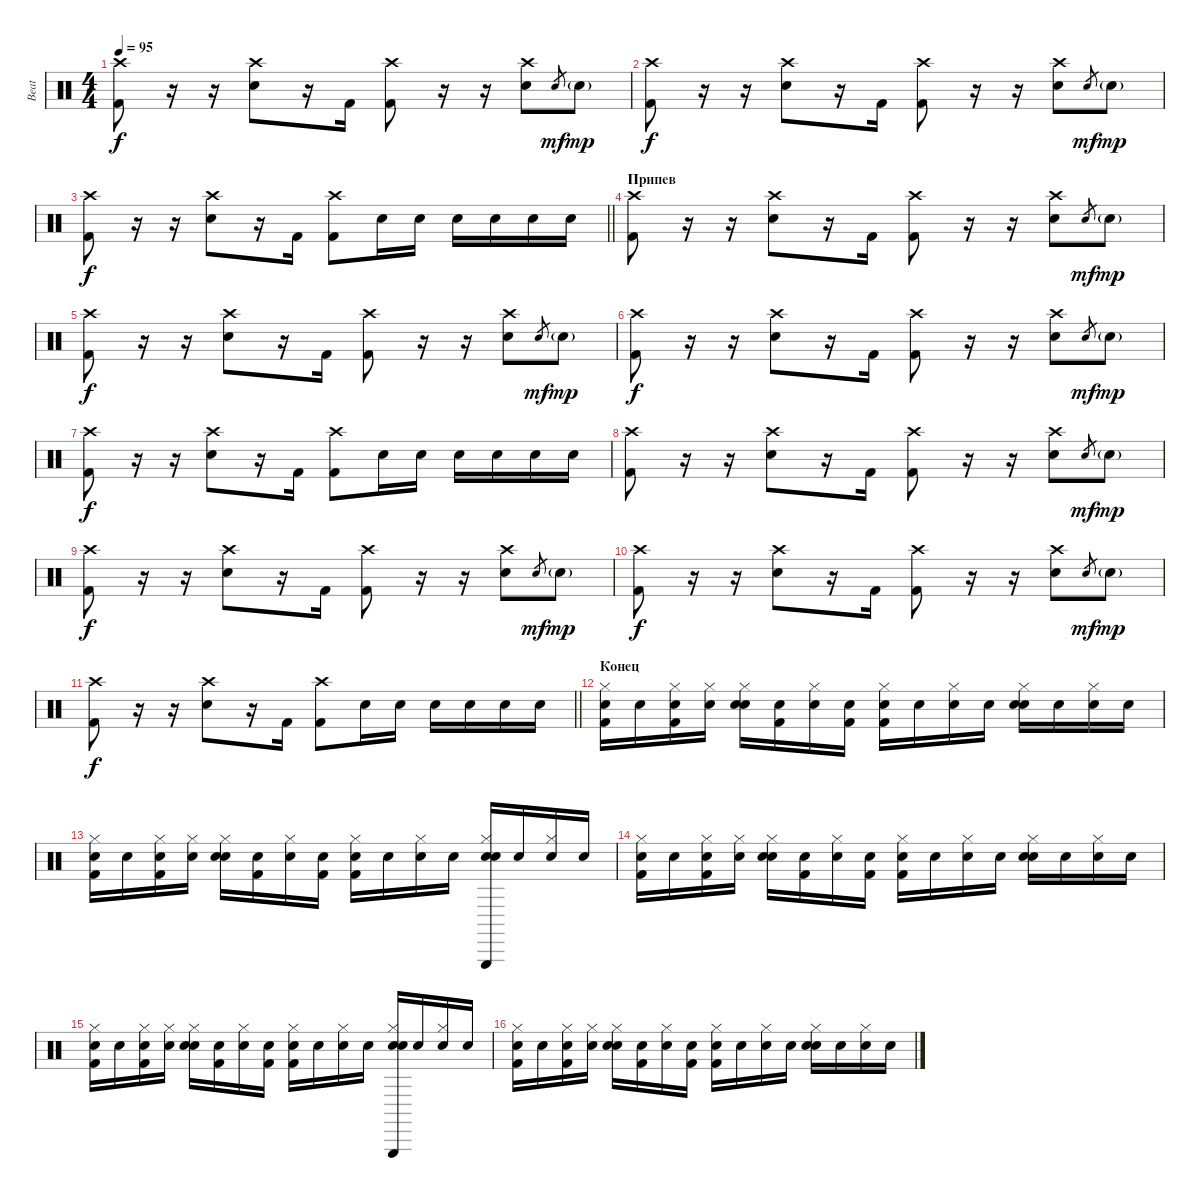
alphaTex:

\track ("Beat" "Beat") {instrument percussion}
\staff {score}
\articulation defaults
\ts (4 4)
\tempo 95
\clef neutral
\ks c
("Crash high (hit)" "Kick (hit) 2").8{dy f} r.16 r.16 ("Crash high (hit)" "Electric Snare (hit)").8 r.16 "Kick (hit) 2".16 ("Crash high (hit)" "Kick (hit) 2").8 r.16 r.16 ("Crash high (hit)" "Electric Snare (hit)").8 "Electric Snare (hit)".8{gr dy mf} "Electric Snare (hit)"{g}.8{dy mp} |
("Crash high (hit)" "Kick (hit) 2").8{dy f} r.16 r.16 ("Crash high (hit)" "Electric Snare (hit)").8 r.16 "Kick (hit) 2".16 ("Crash high (hit)" "Kick (hit) 2").8 r.16 r.16 ("Crash high (hit)" "Electric Snare (hit)").8 "Electric Snare (hit)".8{gr dy mf} "Electric Snare (hit)"{g}.8{dy mp} |
\barLineRight lightlight
("Crash high (hit)" "Kick (hit) 2").8{dy f} r.16 r.16 ("Crash high (hit)" "Electric Snare (hit)").8 r.16 "Kick (hit) 2".16 ("Crash high (hit)" "Kick (hit) 2").8 "Electric Snare (hit)".16 "Electric Snare (hit)".16 "Electric Snare (hit)".16 "Electric Snare (hit)".16 "Electric Snare (hit)".16 "Electric Snare (hit)".16 |
\section ("" "Припев")
("Crash high (hit)" "Kick (hit) 2").8{volume 16} r.16 r.16 ("Crash high (hit)" "Electric Snare (hit)").8 r.16 "Kick (hit) 2".16 ("Crash high (hit)" "Kick (hit) 2").8 r.16 r.16 ("Crash high (hit)" "Electric Snare (hit)").8 "Electric Snare (hit)".8{gr dy mf} "Electric Snare (hit)"{g}.8{dy mp} |
("Crash high (hit)" "Kick (hit) 2").8{dy f} r.16 r.16 ("Crash high (hit)" "Electric Snare (hit)").8 r.16 "Kick (hit) 2".16 ("Crash high (hit)" "Kick (hit) 2").8 r.16 r.16 ("Crash high (hit)" "Electric Snare (hit)").8 "Electric Snare (hit)".8{gr dy mf} "Electric Snare (hit)"{g}.8{dy mp} |
("Crash high (hit)" "Kick (hit) 2").8{dy f} r.16 r.16 ("Crash high (hit)" "Electric Snare (hit)").8 r.16 "Kick (hit) 2".16 ("Crash high (hit)" "Kick (hit) 2").8 r.16 r.16 ("Crash high (hit)" "Electric Snare (hit)").8 "Electric Snare (hit)".8{gr dy mf} "Electric Snare (hit)"{g}.8{dy mp} |
("Crash high (hit)" "Kick (hit) 2").8{dy f} r.16 r.16 ("Crash high (hit)" "Electric Snare (hit)").8 r.16 "Kick (hit) 2".16 ("Crash high (hit)" "Kick (hit) 2").8 "Electric Snare (hit)".16 "Electric Snare (hit)".16 "Electric Snare (hit)".16 "Electric Snare (hit)".16 "Electric Snare (hit)".16 "Electric Snare (hit)".16 |
("Crash high (hit)" "Kick (hit) 2").8 r.16 r.16 ("Crash high (hit)" "Electric Snare (hit)").8 r.16 "Kick (hit) 2".16 ("Crash high (hit)" "Kick (hit) 2").8 r.16 r.16 ("Crash high (hit)" "Electric Snare (hit)").8 "Electric Snare (hit)".8{gr dy mf} "Electric Snare (hit)"{g}.8{dy mp} |
("Crash high (hit)" "Kick (hit) 2").8{dy f} r.16 r.16 ("Crash high (hit)" "Electric Snare (hit)").8 r.16 "Kick (hit) 2".16 ("Crash high (hit)" "Kick (hit) 2").8 r.16 r.16 ("Crash high (hit)" "Electric Snare (hit)").8 "Electric Snare (hit)".8{gr dy mf} "Electric Snare (hit)"{g}.8{dy mp} |
("Crash high (hit)" "Kick (hit) 2").8{dy f} r.16 r.16 ("Crash high (hit)" "Electric Snare (hit)").8 r.16 "Kick (hit) 2".16 ("Crash high (hit)" "Kick (hit) 2").8 r.16 r.16 ("Crash high (hit)" "Electric Snare (hit)").8 "Electric Snare (hit)".8{gr dy mf} "Electric Snare (hit)"{g}.8{dy mp} |
\barLineRight lightlight
("Crash high (hit)" "Kick (hit) 2").8{dy f} r.16 r.16 ("Crash high (hit)" "Electric Snare (hit)").8 r.16 "Kick (hit) 2".16 ("Crash high (hit)" "Kick (hit) 2").8 "Electric Snare (hit)".16 "Electric Snare (hit)".16 "Electric Snare (hit)".16 "Electric Snare (hit)".16 "Electric Snare (hit)".16 "Electric Snare (hit)".16 |
\section ("" "Конец")
("Snare (hit)"{x} "Kick (hit) 2" "Hi-Hat (closed)").16 "Snare (hit)"{x}.16 ("Snare (hit)"{x} "Kick (hit) 2" "Hi-Hat (closed)").16 ("Snare (hit)"{x} "Hi-Hat (closed)").16 ("Snare (hit)"{x} "Electric Snare (hit)" "Hi-Hat (closed)").16 ("Snare (hit)"{x} "Kick (hit) 2").16 ("Snare (hit)"{x} "Hi-Hat (closed)").16 ("Snare (hit)"{x} "Kick (hit) 2").16 ("Snare (hit)"{x} "Kick (hit) 2" "Hi-Hat (closed)").16 "Snare (hit)"{x}.16 ("Snare (hit)"{x} "Hi-Hat (closed)").16 "Snare (hit)"{x}.16 ("Snare (hit)"{x} "Electric Snare (hit)" "Hi-Hat (closed)").16 "Snare (hit)"{x}.16 ("Snare (hit)"{x} "Hi-Hat (closed)").16 "Snare (hit)"{x}.16 |
("Snare (hit)"{x} "Kick (hit) 2" "Hi-Hat (closed)").16 "Snare (hit)"{x}.16 ("Snare (hit)"{x} "Kick (hit) 2" "Hi-Hat (closed)").16 ("Snare (hit)"{x} "Hi-Hat (closed)").16 ("Snare (hit)"{x} "Electric Snare (hit)" "Hi-Hat (closed)").16 ("Snare (hit)"{x} "Kick (hit) 2").16 ("Snare (hit)"{x} "Hi-Hat (closed)").16 ("Snare (hit)"{x} "Kick (hit) 2").16 ("Snare (hit)"{x} "Kick (hit) 2" "Hi-Hat (closed)").16 "Snare (hit)"{x}.16 ("Snare (hit)"{x} "Hi-Hat (closed)").16 "Snare (hit)"{x}.16 ("Snare (hit)"{x} "Triangle (hit)" "Electric Snare (hit)" "Hi-Hat (closed)").16 "Snare (hit)"{x}.16 ("Snare (hit)"{x} "Hi-Hat (closed)").16 "Snare (hit)"{x}.16 |
("Snare (hit)"{x} "Kick (hit) 2" "Hi-Hat (closed)").16 "Snare (hit)"{x}.16 ("Snare (hit)"{x} "Kick (hit) 2" "Hi-Hat (closed)").16 ("Snare (hit)"{x} "Hi-Hat (closed)").16 ("Snare (hit)"{x} "Electric Snare (hit)" "Hi-Hat (closed)").16 ("Snare (hit)"{x} "Kick (hit) 2").16 ("Snare (hit)"{x} "Hi-Hat (closed)").16 ("Snare (hit)"{x} "Kick (hit) 2").16 ("Snare (hit)"{x} "Kick (hit) 2" "Hi-Hat (closed)").16 "Snare (hit)"{x}.16 ("Snare (hit)"{x} "Hi-Hat (closed)").16 "Snare (hit)"{x}.16 ("Snare (hit)"{x} "Electric Snare (hit)" "Hi-Hat (closed)").16 "Snare (hit)"{x}.16 ("Snare (hit)"{x} "Hi-Hat (closed)").16 "Snare (hit)"{x}.16 |
("Snare (hit)"{x} "Kick (hit) 2" "Hi-Hat (closed)").16 "Snare (hit)"{x}.16 ("Snare (hit)"{x} "Kick (hit) 2" "Hi-Hat (closed)").16 ("Snare (hit)"{x} "Hi-Hat (closed)").16 ("Snare (hit)"{x} "Electric Snare (hit)" "Hi-Hat (closed)").16 ("Snare (hit)"{x} "Kick (hit) 2").16 ("Snare (hit)"{x} "Hi-Hat (closed)").16 ("Snare (hit)"{x} "Kick (hit) 2").16 ("Snare (hit)"{x} "Kick (hit) 2" "Hi-Hat (closed)").16 "Snare (hit)"{x}.16 ("Snare (hit)"{x} "Hi-Hat (closed)").16 "Snare (hit)"{x}.16 ("Snare (hit)"{x} "Triangle (hit)" "Electric Snare (hit)" "Hi-Hat (closed)").16 "Snare (hit)"{x}.16 ("Snare (hit)"{x} "Hi-Hat (closed)").16 "Snare (hit)"{x}.16 |
("Snare (hit)"{x} "Kick (hit) 2" "Hi-Hat (closed)").16 "Snare (hit)"{x}.16 ("Snare (hit)"{x} "Kick (hit) 2" "Hi-Hat (closed)").16 ("Snare (hit)"{x} "Hi-Hat (closed)").16 ("Snare (hit)"{x} "Electric Snare (hit)" "Hi-Hat (closed)").16 ("Snare (hit)"{x} "Kick (hit) 2").16 ("Snare (hit)"{x} "Hi-Hat (closed)").16 ("Snare (hit)"{x} "Kick (hit) 2").16 ("Snare (hit)"{x} "Kick (hit) 2" "Hi-Hat (closed)").16 "Snare (hit)"{x}.16 ("Snare (hit)"{x} "Hi-Hat (closed)").16 "Snare (hit)"{x}.16 ("Snare (hit)"{x} "Electric Snare (hit)" "Hi-Hat (closed)").16 "Snare (hit)"{x}.16 ("Snare (hit)"{x} "Hi-Hat (closed)").16 "Snare (hit)"{x}.16
